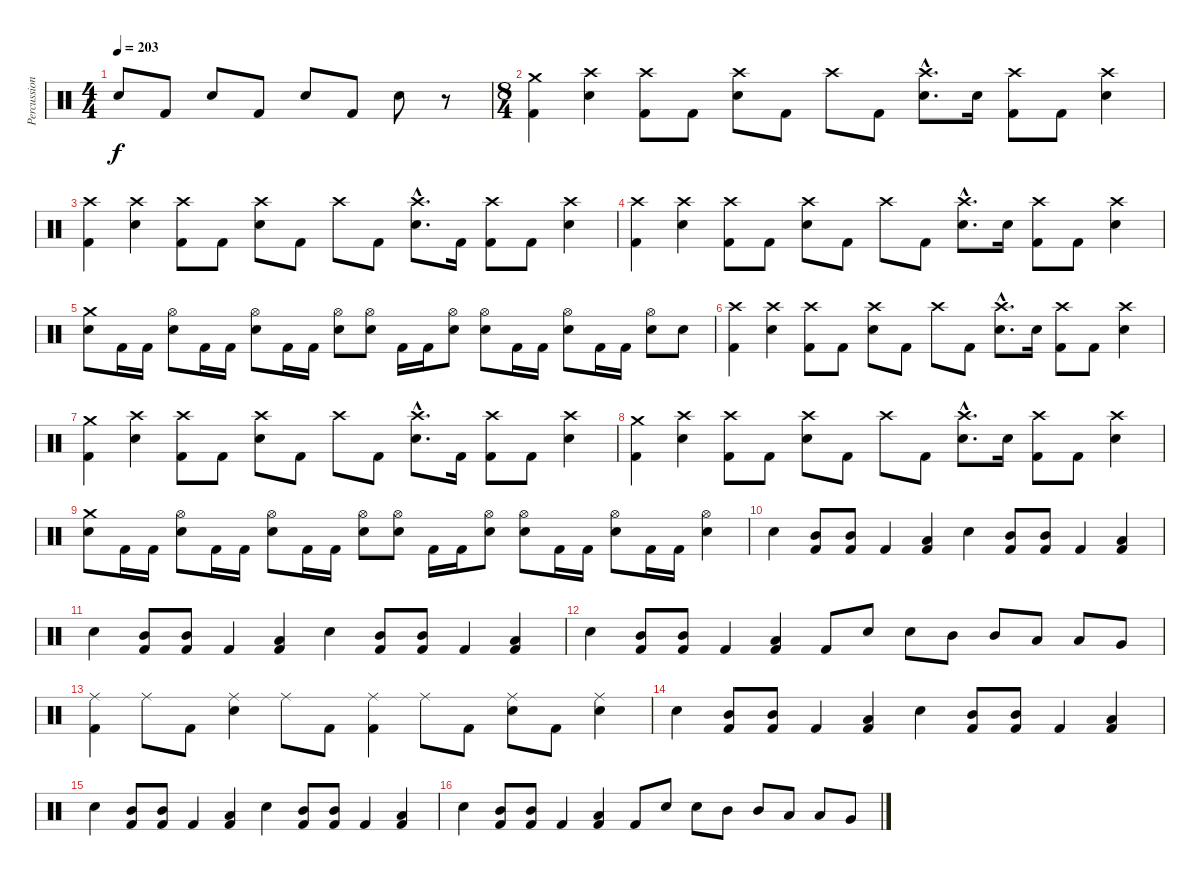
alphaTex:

\track ("Percussion" "Percussion") {instrument percussion}
\staff {score}
\articulation defaults
\ts (4 4)
\tempo 203
\clef neutral
\ks c "Snare (hit) 2".8{dy f} "Kick (hit) 2".8 "Snare (hit) 2".8 "Kick (hit) 2".8 "Snare (hit) 2".8 "Kick (hit) 2".8 "Snare (hit) 2".8
r.8 |
\ts (8 4)
("Crash medium (hit)" "Kick (hit) 2").4 ("Crash high (hit)" "Snare (hit) 2").4 ("Crash high (hit)" "Kick (hit) 2").8 "Kick (hit) 2".8 ("Crash high (hit)" "Snare (hit) 2").8 "Kick (hit) 2".8 "Crash high (hit)".8 "Kick (hit) 2".8 ("Crash high (hit)"{hac} "Snare (hit) 2"{hac}).8{d} "Snare (hit) 2".16 ("Crash high (hit)" "Kick (hit) 2").8 "Kick (hit) 2".8 ("Crash high (hit)" "Snare (hit) 2").4 |
("Crash high (hit)" "Kick (hit) 2").4 ("Crash high (hit)" "Snare (hit) 2").4 ("Crash high (hit)" "Kick (hit) 2").8 "Kick (hit) 2".8 ("Crash high (hit)" "Snare (hit) 2").8 "Kick (hit) 2".8 "Crash high (hit)".8 "Kick (hit) 2".8 ("Crash high (hit)"{hac} "Snare (hit) 2"{hac}).8{d} "Kick (hit) 2".16 ("Crash high (hit)" "Kick (hit) 2").8 "Kick (hit) 2".8 ("Crash high (hit)" "Snare (hit) 2").4 |
("Crash high (hit)" "Kick (hit) 2").4 ("Crash high (hit)" "Snare (hit) 2").4 ("Crash high (hit)" "Kick (hit) 2").8 "Kick (hit) 2".8 ("Crash high (hit)" "Snare (hit) 2").8 "Kick (hit) 2".8 "Crash high (hit)".8 "Kick (hit) 2".8 ("Crash high (hit)"{hac} "Snare (hit) 2"{hac}).8{d} "Snare (hit) 2".16 ("Crash high (hit)" "Kick (hit) 2").8 "Kick (hit) 2".8 ("Crash high (hit)" "Snare (hit) 2").4 |
("Crash medium (hit)" "Snare (hit) 2").8 "Kick (hit) 2".16 "Kick (hit) 2".16 ("Hi-Hat (open)" "Snare (hit) 2").8 "Kick (hit) 2".16 "Kick (hit) 2".16 ("Hi-Hat (open)" "Snare (hit) 2").8 "Kick (hit) 2".16 "Kick (hit) 2".16 ("Hi-Hat (open)" "Snare (hit) 2").8 ("Hi-Hat (open)" "Snare (hit) 2").8 "Kick (hit) 2".16 "Kick (hit) 2".16 ("Hi-Hat (open)" "Snare (hit) 2").8 ("Hi-Hat (open)" "Snare (hit) 2").8 "Kick (hit) 2".16 "Kick (hit) 2".16 ("Hi-Hat (open)" "Snare (hit) 2").8 "Kick (hit) 2".16 "Kick (hit) 2".16 ("Hi-Hat (open)" "Snare (hit) 2").8 "Snare (hit) 2".8 |
("Crash high (hit)" "Kick (hit) 2").4 ("Crash high (hit)" "Snare (hit) 2").4 ("Crash high (hit)" "Kick (hit) 2").8 "Kick (hit) 2".8 ("Crash high (hit)" "Snare (hit) 2").8 "Kick (hit) 2".8 "Crash high (hit)".8 "Kick (hit) 2".8 ("Crash high (hit)"{hac} "Snare (hit) 2"{hac}).8{d} "Snare (hit) 2".16 ("Crash high (hit)" "Kick (hit) 2").8 "Kick (hit) 2".8 ("Crash high (hit)" "Snare (hit) 2").4 |
("Crash medium (hit)" "Kick (hit) 2").4 ("Crash high (hit)" "Snare (hit) 2").4 ("Crash high (hit)" "Kick (hit) 2").8 "Kick (hit) 2".8 ("Crash high (hit)" "Snare (hit) 2").8 "Kick (hit) 2".8 "Crash high (hit)".8 "Kick (hit) 2".8 ("Crash high (hit)"{hac} "Snare (hit) 2"{hac}).8{d} "Kick (hit) 2".16 ("Crash high (hit)" "Kick (hit) 2").8 "Kick (hit) 2".8 ("Crash high (hit)" "Snare (hit) 2").4 |
("Crash medium (hit)" "Kick (hit) 2").4 ("Crash high (hit)" "Snare (hit) 2").4 ("Crash high (hit)" "Kick (hit) 2").8 "Kick (hit) 2".8 ("Crash high (hit)" "Snare (hit) 2").8 "Kick (hit) 2".8 "Crash high (hit)".8 "Kick (hit) 2".8 ("Crash high (hit)"{hac} "Snare (hit) 2"{hac}).8{d} "Snare (hit) 2".16 ("Crash high (hit)" "Kick (hit) 2").8 "Kick (hit) 2".8 ("Crash high (hit)" "Snare (hit) 2").4 |
("Crash medium (hit)" "Snare (hit) 2").8 "Kick (hit) 2".16 "Kick (hit) 2".16 ("Hi-Hat (open)" "Snare (hit) 2").8 "Kick (hit) 2".16 "Kick (hit) 2".16 ("Hi-Hat (open)" "Snare (hit) 2").8 "Kick (hit) 2".16 "Kick (hit) 2".16 ("Hi-Hat (open)" "Snare (hit) 2").8 ("Hi-Hat (open)" "Snare (hit) 2").8 "Kick (hit) 2".16 "Kick (hit) 2".16 ("Hi-Hat (open)" "Snare (hit) 2").8 ("Hi-Hat (open)" "Snare (hit) 2").8 "Kick (hit) 2".16 "Kick (hit) 2".16 ("Hi-Hat (open)" "Snare (hit) 2").8 "Kick (hit) 2".16 "Kick (hit) 2".16 ("Hi-Hat (open)" "Snare (hit) 2").4 |
"Snare (hit) 2".4 ("Mid Tom (hit)" "Kick (hit) 2").8 ("Mid Tom (hit)" "Kick (hit) 2").8 "Kick (hit) 2".4 ("Low Tom (hit)" "Kick (hit) 2").4 "Snare (hit) 2".4 ("Mid Tom (hit)" "Kick (hit) 2").8 ("Mid Tom (hit)" "Kick (hit) 2").8 "Kick (hit) 2".4 ("Low Tom (hit)" "Kick (hit) 2").4 |
"Snare (hit) 2".4 ("Mid Tom (hit)" "Kick (hit) 2").8 ("Mid Tom (hit)" "Kick (hit) 2").8 "Kick (hit) 2".4 ("Low Tom (hit)" "Kick (hit) 2").4 "Snare (hit) 2".4 ("Mid Tom (hit)" "Kick (hit) 2").8 ("Mid Tom (hit)" "Kick (hit) 2").8 "Kick (hit) 2".4 ("Low Tom (hit)" "Kick (hit) 2").4 |
"Snare (hit) 2".4 ("Mid Tom (hit)" "Kick (hit) 2").8 ("Mid Tom (hit)" "Kick (hit) 2").8 "Kick (hit) 2".4 ("Low Tom (hit)" "Kick (hit) 2").4 "Kick (hit) 2".8 "Snare (hit) 2".8 "Snare (hit) 2".8 "Mid Tom (hit)".8 "Mid Tom (hit)".8 "Low Tom (hit)".8 "Low Tom (hit)".8 "Very Low Tom (hit)".8 |
("Ride (middle)" "Kick (hit) 2").4 "Ride (middle)".8 "Kick (hit) 2".8 ("Ride (middle)" "Snare (hit) 2").4 "Ride (middle)".8 "Kick (hit) 2".8 ("Ride (middle)" "Kick (hit) 2").4 "Ride (middle)".8 "Kick (hit) 2".8 ("Ride (middle)" "Snare (hit) 2").8 "Kick (hit) 2".8 ("Ride (middle)" "Snare (hit) 2").4 |
"Snare (hit) 2".4 ("Mid Tom (hit)" "Kick (hit) 2").8 ("Mid Tom (hit)" "Kick (hit) 2").8 "Kick (hit) 2".4 ("Low Tom (hit)" "Kick (hit) 2").4 "Snare (hit) 2".4 ("Mid Tom (hit)" "Kick (hit) 2").8 ("Mid Tom (hit)" "Kick (hit) 2").8 "Kick (hit) 2".4 ("Low Tom (hit)" "Kick (hit) 2").4 |
"Snare (hit) 2".4 ("Mid Tom (hit)" "Kick (hit) 2").8 ("Mid Tom (hit)" "Kick (hit) 2").8 "Kick (hit) 2".4 ("Low Tom (hit)" "Kick (hit) 2").4 "Snare (hit) 2".4 ("Mid Tom (hit)" "Kick (hit) 2").8 ("Mid Tom (hit)" "Kick (hit) 2").8 "Kick (hit) 2".4 ("Low Tom (hit)" "Kick (hit) 2").4 |
"Snare (hit) 2".4 ("Mid Tom (hit)" "Kick (hit) 2").8 ("Mid Tom (hit)" "Kick (hit) 2").8 "Kick (hit) 2".4 ("Low Tom (hit)" "Kick (hit) 2").4 "Kick (hit) 2".8 "Snare (hit) 2".8 "Snare (hit) 2".8 "Mid Tom (hit)".8 "Mid Tom (hit)".8 "Low Tom (hit)".8 "Low Tom (hit)".8 "Very Low Tom (hit)".8
